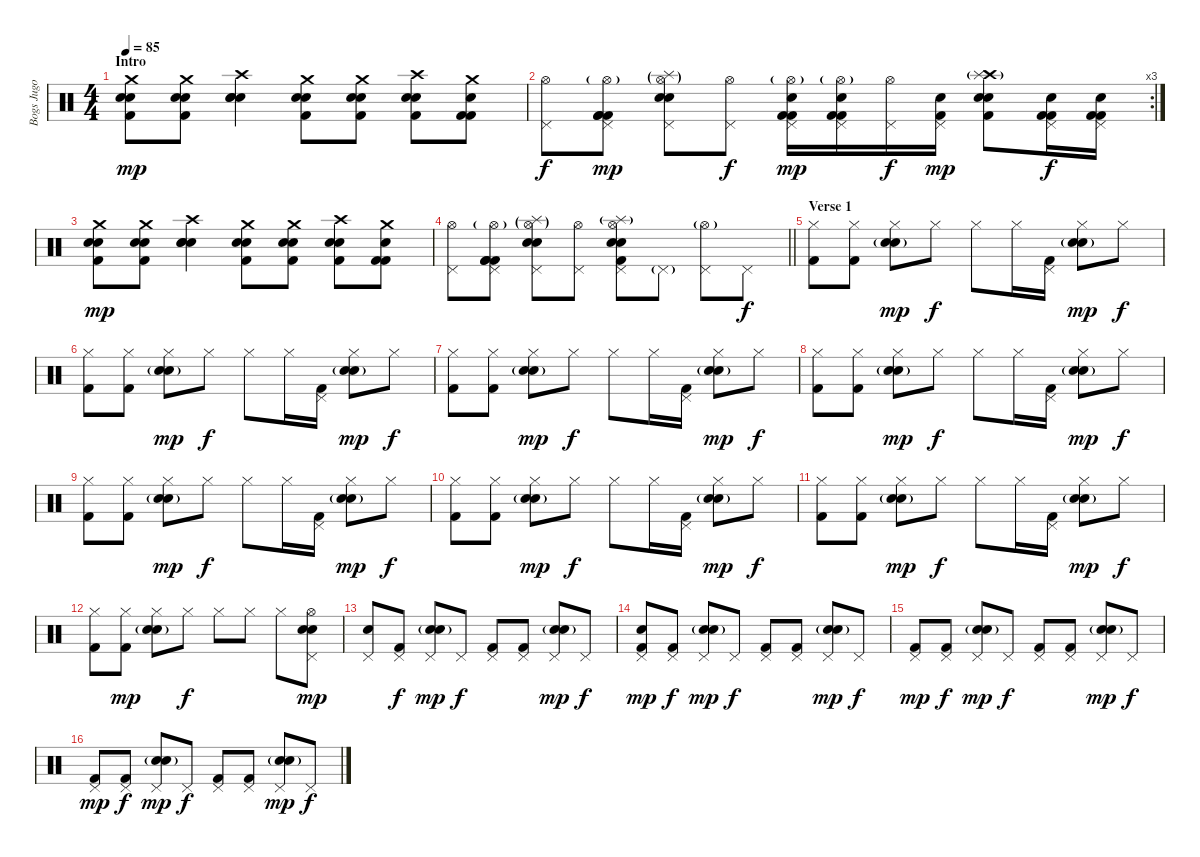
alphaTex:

\track ("Bogs Jugo" "Bogs Jugo") {instrument percussion}
\staff {score}
\articulation defaults
\ts (4 4)
\section ("" "Intro")
\tempo 85
\clef neutral
\ks c
("Crash medium (hit)" "Electric Snare (hit)" "Snare (hit) 2" "Kick (hit) 2").8{dy mp} ("Crash medium (hit)" "Electric Snare (hit)" "Snare (hit) 2" "Kick (hit) 2").8 ("Crash high (hit)" "Electric Snare (hit)" "Snare (hit) 2" "Snare (hit) 2").4 ("Crash medium (hit)" "Electric Snare (hit)" "Snare (hit) 2" "Kick (hit) 2").8 ("Crash medium (hit)" "Electric Snare (hit)" "Snare (hit) 2" "Kick (hit) 2").8 ("Crash high (hit)" "Electric Snare (hit)" "Snare (hit) 2" "Kick (hit) 2").8 ("Crash medium (hit)" "Kick (hit) 2" "Kick (hit) 2" "Electric Snare (hit)").8 |
\rc 3
("Pedal Hi-Hat (hit)" "Hi-Hat (open)").8{dy f} ("Pedal Hi-Hat (hit)" "Hi-Hat (open)"{g} "Kick (hit) 2" "Kick (hit) 2" "Kick (hit) 2").8{dy mp} ("Pedal Hi-Hat (hit)" "Hi-Hat (open)"{g} "Electric Snare (hit)" "Snare (hit) 2" "Splash (hit)"{g}).8 ("Pedal Hi-Hat (hit)" "Hi-Hat (open)").8{dy f} ("Pedal Hi-Hat (hit)" "Hi-Hat (open)"{g} "Kick (hit) 2" "Kick (hit) 2" "Electric Snare (hit)").16{dy mp} ("Pedal Hi-Hat (hit)" "Hi-Hat (open)"{g} "Kick (hit) 2" "Kick (hit) 2" "Electric Snare (hit)").16 ("Pedal Hi-Hat (hit)" "Hi-Hat (open)").16{dy f} ("Pedal Hi-Hat (hit)" "Electric Snare (hit)" "Kick (hit) 2").16{dy mp} ("Crash high (hit)" "Electric Snare (hit)" "Snare (hit) 2" "Kick (hit) 2" "Splash (hit)"{g}).8 ("Pedal Hi-Hat (hit)" "Electric Snare (hit)" "Kick (hit) 2" "Kick (hit) 2").16{dy f} ("Pedal Hi-Hat (hit)" "Electric Snare (hit)" "Kick (hit) 2" "Kick (hit) 2").16 |
("Crash medium (hit)" "Electric Snare (hit)" "Snare (hit) 2" "Kick (hit) 2").8{dy mp} ("Crash medium (hit)" "Electric Snare (hit)" "Snare (hit) 2" "Kick (hit) 2").8 ("Crash high (hit)" "Electric Snare (hit)" "Snare (hit) 2" "Snare (hit) 2").4 ("Crash medium (hit)" "Electric Snare (hit)" "Snare (hit) 2" "Kick (hit) 2").8 ("Crash medium (hit)" "Electric Snare (hit)" "Snare (hit) 2" "Kick (hit) 2").8 ("Crash high (hit)" "Electric Snare (hit)" "Snare (hit) 2" "Kick (hit) 2").8 ("Crash medium (hit)" "Kick (hit) 2" "Kick (hit) 2" "Electric Snare (hit)").8 |
\barLineRight lightlight
("Pedal Hi-Hat (hit)" "Hi-Hat (open)").8 ("Pedal Hi-Hat (hit)" "Hi-Hat (open)"{g} "Kick (hit) 2" "Kick (hit) 2" "Kick (hit) 2").8 ("Pedal Hi-Hat (hit)" "Hi-Hat (open)"{g} "Electric Snare (hit)" "Snare (hit) 2" "Splash (hit)"{g}).8 ("Pedal Hi-Hat (hit)" "Hi-Hat (open)").8 ("Pedal Hi-Hat (hit)" "Hi-Hat (open)" "Electric Snare (hit)" "Snare (hit) 2" "Kick (hit) 2" "Splash (hit)"{g}).8 "Pedal Hi-Hat (hit)"{g}.8 ("Pedal Hi-Hat (hit)" "Hi-Hat (open)"{g}).8 "Pedal Hi-Hat (hit)".8{dy f} |
\section ("" "Verse 1")
("Hi-Hat (closed)" "Kick (hit) 2").8 ("Hi-Hat (closed)" "Kick (hit) 2").8 ("Hi-Hat (closed)" "Electric Snare (hit)" "Snare (hit) 2"{g}).8{dy mp} "Hi-Hat (closed)".8{dy f} "Hi-Hat (closed)".8 "Hi-Hat (closed)".16 ("Pedal Hi-Hat (hit)" "Kick (hit) 2").16 ("Hi-Hat (closed)" "Electric Snare (hit)" "Snare (hit) 2"{g}).8{dy mp} "Hi-Hat (closed)".8{dy f} |
("Hi-Hat (closed)" "Kick (hit) 2").8 ("Hi-Hat (closed)" "Kick (hit) 2").8 ("Hi-Hat (closed)" "Electric Snare (hit)" "Snare (hit) 2"{g}).8{dy mp} "Hi-Hat (closed)".8{dy f} "Hi-Hat (closed)".8 "Hi-Hat (closed)".16 ("Pedal Hi-Hat (hit)" "Kick (hit) 2").16 ("Hi-Hat (closed)" "Electric Snare (hit)" "Snare (hit) 2"{g}).8{dy mp} "Hi-Hat (closed)".8{dy f} |
("Hi-Hat (closed)" "Kick (hit) 2").8 ("Hi-Hat (closed)" "Kick (hit) 2").8 ("Hi-Hat (closed)" "Electric Snare (hit)" "Snare (hit) 2"{g}).8{dy mp} "Hi-Hat (closed)".8{dy f} "Hi-Hat (closed)".8 "Hi-Hat (closed)".16 ("Pedal Hi-Hat (hit)" "Kick (hit) 2").16 ("Hi-Hat (closed)" "Electric Snare (hit)" "Snare (hit) 2"{g}).8{dy mp} "Hi-Hat (closed)".8{dy f} |
("Hi-Hat (closed)" "Kick (hit) 2").8 ("Hi-Hat (closed)" "Kick (hit) 2").8 ("Hi-Hat (closed)" "Electric Snare (hit)" "Snare (hit) 2"{g}).8{dy mp} "Hi-Hat (closed)".8{dy f} "Hi-Hat (closed)".8 "Hi-Hat (closed)".16 ("Pedal Hi-Hat (hit)" "Kick (hit) 2").16 ("Hi-Hat (closed)" "Electric Snare (hit)" "Snare (hit) 2"{g}).8{dy mp} "Hi-Hat (closed)".8{dy f} |
("Hi-Hat (closed)" "Kick (hit) 2").8 ("Hi-Hat (closed)" "Kick (hit) 2").8 ("Hi-Hat (closed)" "Electric Snare (hit)" "Snare (hit) 2"{g}).8{dy mp} "Hi-Hat (closed)".8{dy f} "Hi-Hat (closed)".8 "Hi-Hat (closed)".16 ("Pedal Hi-Hat (hit)" "Kick (hit) 2").16 ("Hi-Hat (closed)" "Electric Snare (hit)" "Snare (hit) 2"{g}).8{dy mp} "Hi-Hat (closed)".8{dy f} |
("Hi-Hat (closed)" "Kick (hit) 2").8 ("Hi-Hat (closed)" "Kick (hit) 2").8 ("Hi-Hat (closed)" "Electric Snare (hit)" "Snare (hit) 2"{g}).8{dy mp} "Hi-Hat (closed)".8{dy f} "Hi-Hat (closed)".8 "Hi-Hat (closed)".16 ("Pedal Hi-Hat (hit)" "Kick (hit) 2").16 ("Hi-Hat (closed)" "Electric Snare (hit)" "Snare (hit) 2"{g}).8{dy mp} "Hi-Hat (closed)".8{dy f} |
("Hi-Hat (closed)" "Kick (hit) 2").8 ("Hi-Hat (closed)" "Kick (hit) 2").8 ("Hi-Hat (closed)" "Electric Snare (hit)" "Snare (hit) 2"{g}).8{dy mp} "Hi-Hat (closed)".8{dy f} "Hi-Hat (closed)".8 "Hi-Hat (closed)".16 ("Pedal Hi-Hat (hit)" "Kick (hit) 2").16 ("Hi-Hat (closed)" "Electric Snare (hit)" "Snare (hit) 2"{g}).8{dy mp} "Hi-Hat (closed)".8{dy f} |
("Hi-Hat (closed)" "Kick (hit) 2").8 ("Hi-Hat (closed)" "Kick (hit) 2").8{dy mp} ("Hi-Hat (closed)" "Electric Snare (hit)" "Snare (hit) 2"{g}).8 "Hi-Hat (closed)".8{dy f} "Hi-Hat (closed)".8 "Hi-Hat (closed)".8 "Hi-Hat (closed)".8 ("Pedal Hi-Hat (hit)" "Electric Snare (hit)" "Snare (hit) 2" "Hi-Hat (open)").8{dy mp} |
("Pedal Hi-Hat (hit)" "Electric Snare (hit)").8 ("Pedal Hi-Hat (hit)" "Kick (hit) 2").8{dy f} ("Pedal Hi-Hat (hit)" "Electric Snare (hit)" "Snare (hit) 2"{g}).8{dy mp} "Pedal Hi-Hat (hit)".8{dy f} ("Pedal Hi-Hat (hit)" "Kick (hit) 2").8 ("Pedal Hi-Hat (hit)" "Kick (hit) 2").8 ("Pedal Hi-Hat (hit)" "Electric Snare (hit)" "Snare (hit) 2"{g}).8{dy mp} "Pedal Hi-Hat (hit)".8{dy f} |
("Pedal Hi-Hat (hit)" "Electric Snare (hit)" "Kick (hit) 2").8{dy mp} ("Pedal Hi-Hat (hit)" "Kick (hit) 2").8{dy f} ("Pedal Hi-Hat (hit)" "Electric Snare (hit)" "Snare (hit) 2"{g}).8{dy mp} "Pedal Hi-Hat (hit)".8{dy f} ("Pedal Hi-Hat (hit)" "Kick (hit) 2").8 ("Pedal Hi-Hat (hit)" "Kick (hit) 2").8 ("Pedal Hi-Hat (hit)" "Electric Snare (hit)" "Snare (hit) 2"{g}).8{dy mp} "Pedal Hi-Hat (hit)".8{dy f} |
("Pedal Hi-Hat (hit)" "Kick (hit) 2").8{dy mp} ("Pedal Hi-Hat (hit)" "Kick (hit) 2").8{dy f} ("Pedal Hi-Hat (hit)" "Electric Snare (hit)" "Snare (hit) 2"{g}).8{dy mp} "Pedal Hi-Hat (hit)".8{dy f} ("Pedal Hi-Hat (hit)" "Kick (hit) 2").8 ("Pedal Hi-Hat (hit)" "Kick (hit) 2").8 ("Pedal Hi-Hat (hit)" "Electric Snare (hit)" "Snare (hit) 2"{g}).8{dy mp} "Pedal Hi-Hat (hit)".8{dy f} |
("Pedal Hi-Hat (hit)" "Kick (hit) 2").8{dy mp} ("Pedal Hi-Hat (hit)" "Kick (hit) 2").8{dy f} ("Pedal Hi-Hat (hit)" "Electric Snare (hit)" "Snare (hit) 2"{g}).8{dy mp} "Pedal Hi-Hat (hit)".8{dy f} ("Pedal Hi-Hat (hit)" "Kick (hit) 2").8 ("Pedal Hi-Hat (hit)" "Kick (hit) 2").8 ("Pedal Hi-Hat (hit)" "Electric Snare (hit)" "Snare (hit) 2"{g}).8{dy mp} "Pedal Hi-Hat (hit)".8{dy f}
